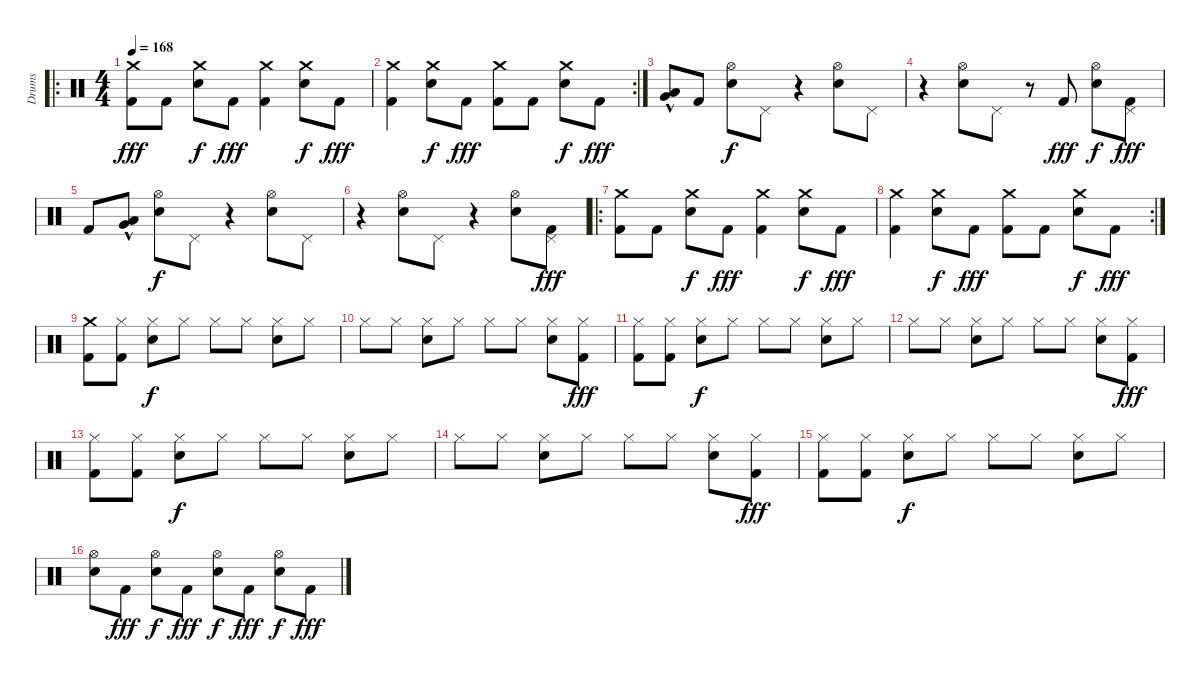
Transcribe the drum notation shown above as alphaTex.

\track ("Drums" "Drums") {instrument percussion}
\staff {score}
\articulation defaults
\ro
\ts (4 4)
\tempo 168
\clef neutral
\ks c
("Crash medium (hit)" "Kick (hit) 2").8{dy fff} "Kick (hit) 2".8 ("Crash medium (hit)" "Electric Snare (hit)").8{dy f} "Kick (hit) 2".8{dy fff} ("Crash medium (hit)" "Kick (hit) 2").4 ("Crash medium (hit)" "Electric Snare (hit)").8{dy f} "Kick (hit) 2".8{dy fff} |
\rc 2
("Crash medium (hit)" "Kick (hit) 2").4 ("Crash medium (hit)" "Electric Snare (hit)").8{dy f} "Kick (hit) 2".8{dy fff} ("Crash medium (hit)" "Kick (hit) 2").8 "Kick (hit) 2".8 ("Crash medium (hit)" "Electric Snare (hit)").8{dy f} "Kick (hit) 2".8{dy fff} |
("Low Tom (hit)"{hac} "Very Low Tom (hit)"{hac}).8 "Kick (hit) 2".8 ("Hi-Hat (open)" "Electric Snare (hit)").8{dy f} "Pedal Hi-Hat (hit)".8 r.4 ("Hi-Hat (open)" "Electric Snare (hit)").8 "Pedal Hi-Hat (hit)".8 |
r.4 ("Hi-Hat (open)" "Electric Snare (hit)").8 "Pedal Hi-Hat (hit)".8 r.8 "Kick (hit) 2".8{dy fff} ("Hi-Hat (open)" "Electric Snare (hit)").8{dy f} ("Pedal Hi-Hat (hit)" "Kick (hit) 2").8{dy fff} |
"Kick (hit) 2".8 ("Low Tom (hit)"{hac} "Very Low Tom (hit)"{hac}).8 ("Hi-Hat (open)" "Electric Snare (hit)").8{dy f} "Pedal Hi-Hat (hit)".8 r.4 ("Hi-Hat (open)" "Electric Snare (hit)").8 "Pedal Hi-Hat (hit)".8 |
r.4 ("Hi-Hat (open)" "Electric Snare (hit)").8 "Pedal Hi-Hat (hit)".8 r.4 ("Hi-Hat (open)" "Electric Snare (hit)").8 ("Pedal Hi-Hat (hit)" "Kick (hit) 2").8{dy fff} |
\ro
("Crash medium (hit)" "Kick (hit) 2").8 "Kick (hit) 2".8 ("Crash medium (hit)" "Electric Snare (hit)").8{dy f} "Kick (hit) 2".8{dy fff} ("Crash medium (hit)" "Kick (hit) 2").4 ("Crash medium (hit)" "Electric Snare (hit)").8{dy f} "Kick (hit) 2".8{dy fff} |
\rc 2
("Crash medium (hit)" "Kick (hit) 2").4 ("Crash medium (hit)" "Electric Snare (hit)").8{dy f} "Kick (hit) 2".8{dy fff} ("Crash medium (hit)" "Kick (hit) 2").8 "Kick (hit) 2".8 ("Crash medium (hit)" "Electric Snare (hit)").8{dy f} "Kick (hit) 2".8{dy fff} |
("Crash medium (hit)" "Kick (hit) 2").8 ("Hi-Hat (closed)" "Kick (hit) 2").8 ("Hi-Hat (closed)" "Electric Snare (hit)").8{dy f} "Hi-Hat (closed)".8 "Hi-Hat (closed)".8 "Hi-Hat (closed)".8 ("Hi-Hat (closed)" "Electric Snare (hit)").8 "Hi-Hat (closed)".8 |
"Hi-Hat (closed)".8 "Hi-Hat (closed)".8 ("Hi-Hat (closed)" "Electric Snare (hit)").8 "Hi-Hat (closed)".8 "Hi-Hat (closed)".8 "Hi-Hat (closed)".8 ("Hi-Hat (closed)" "Electric Snare (hit)").8 ("Hi-Hat (closed)" "Kick (hit) 2").8{dy fff} |
("Hi-Hat (closed)" "Kick (hit) 2").8 ("Hi-Hat (closed)" "Kick (hit) 2").8 ("Hi-Hat (closed)" "Electric Snare (hit)").8{dy f} "Hi-Hat (closed)".8 "Hi-Hat (closed)".8 "Hi-Hat (closed)".8 ("Hi-Hat (closed)" "Electric Snare (hit)").8 "Hi-Hat (closed)".8 |
"Hi-Hat (closed)".8 "Hi-Hat (closed)".8 ("Hi-Hat (closed)" "Electric Snare (hit)").8 "Hi-Hat (closed)".8 "Hi-Hat (closed)".8 "Hi-Hat (closed)".8 ("Hi-Hat (closed)" "Electric Snare (hit)").8 ("Hi-Hat (closed)" "Kick (hit) 2").8{dy fff} |
("Hi-Hat (closed)" "Kick (hit) 2").8 ("Hi-Hat (closed)" "Kick (hit) 2").8 ("Hi-Hat (closed)" "Electric Snare (hit)").8{dy f} "Hi-Hat (closed)".8 "Hi-Hat (closed)".8 "Hi-Hat (closed)".8 ("Hi-Hat (closed)" "Electric Snare (hit)").8 "Hi-Hat (closed)".8 |
"Hi-Hat (closed)".8 "Hi-Hat (closed)".8 ("Hi-Hat (closed)" "Electric Snare (hit)").8 "Hi-Hat (closed)".8 "Hi-Hat (closed)".8 "Hi-Hat (closed)".8 ("Hi-Hat (closed)" "Electric Snare (hit)").8 ("Hi-Hat (closed)" "Kick (hit) 2").8{dy fff} |
("Hi-Hat (closed)" "Kick (hit) 2").8 ("Hi-Hat (closed)" "Kick (hit) 2").8 ("Hi-Hat (closed)" "Electric Snare (hit)").8{dy f} "Hi-Hat (closed)".8 "Hi-Hat (closed)".8 "Hi-Hat (closed)".8 ("Hi-Hat (closed)" "Electric Snare (hit)").8 "Hi-Hat (closed)".8 |
("Hi-Hat (open)" "Electric Snare (hit)").8 "Kick (hit) 2".8{dy fff} ("Hi-Hat (open)" "Electric Snare (hit)").8{dy f} "Kick (hit) 2".8{dy fff} ("Hi-Hat (open)" "Electric Snare (hit)").8{dy f} "Kick (hit) 2".8{dy fff} ("Hi-Hat (open)" "Electric Snare (hit)").8{dy f} "Kick (hit) 2".8{dy fff}
